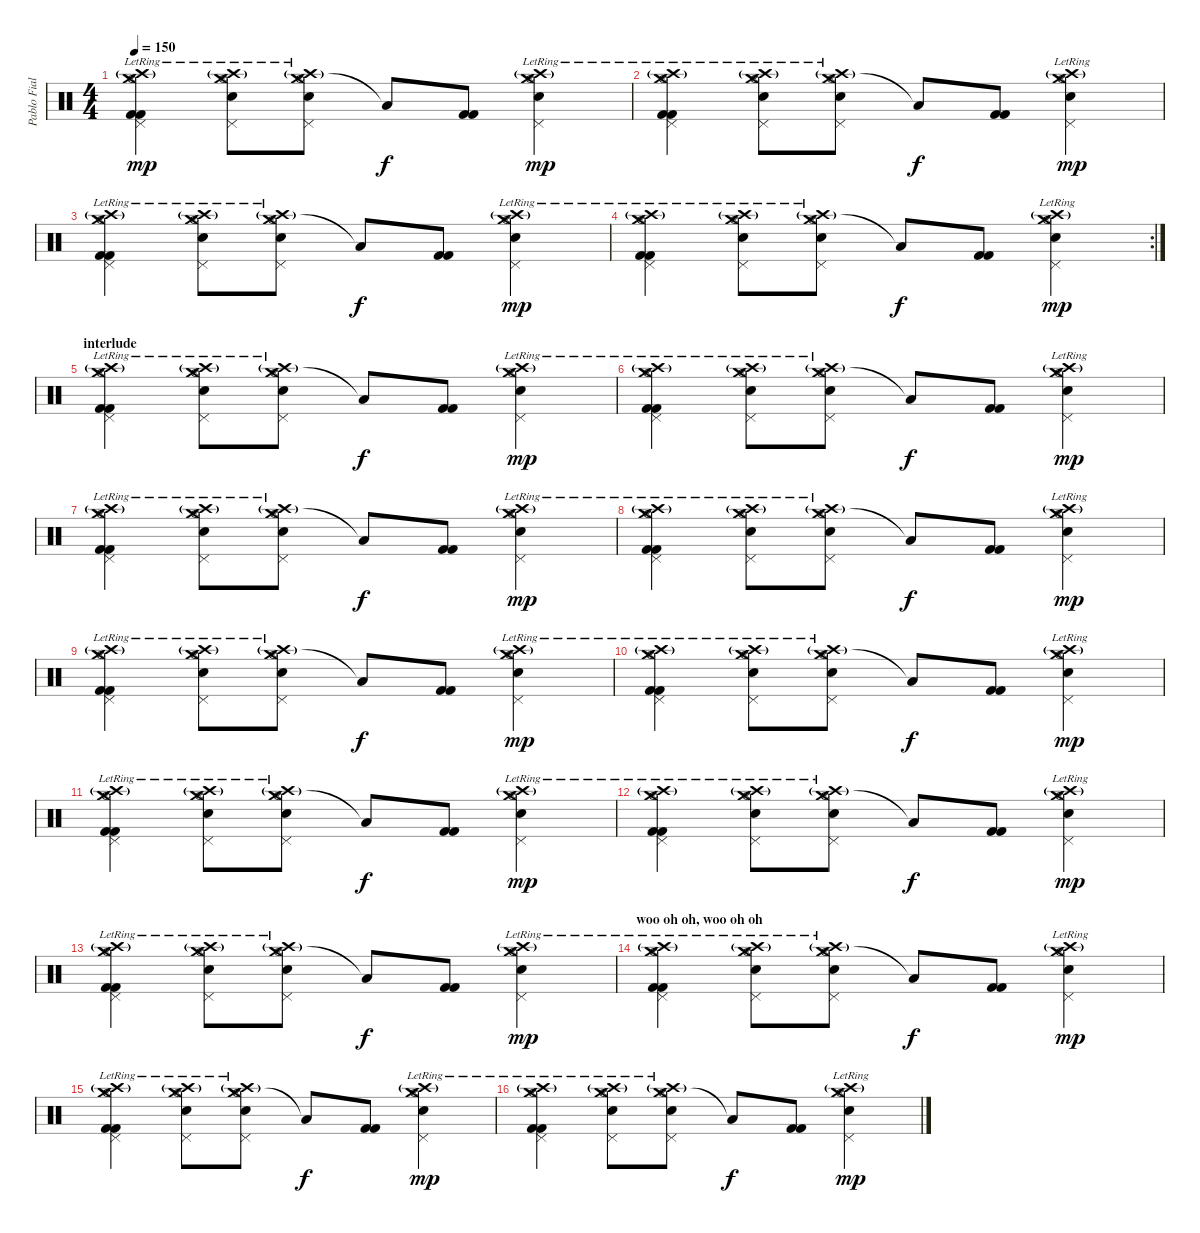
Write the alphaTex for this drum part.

\track ("Pablo Fiallo" "Pablo Fial") {instrument percussion}
\staff {score}
\articulation defaults
\ts (4 4)
\tempo 150
\clef neutral
\ks c
("Crash medium (hit)" "Crash high (hit)"{g} "Pedal Hi-Hat (hit)" "Hi-Hat (open)"{lr} "Kick (hit) 2" "Kick (hit) 2").4{dy mp} ("Crash medium (hit)" "Crash high (hit)"{g} "Pedal Hi-Hat (hit)" "Hi-Hat (open)"{lr} "Snare (hit) 2").8 ("Crash medium (hit)" "Crash high (hit)"{g} "Pedal Hi-Hat (hit)" "Hi-Hat (open)"{lr} "Snare (hit) 2").8 "Low Floor Tom (hit)"{t}.8{dy f} ("Kick (hit) 2" "Kick (hit) 2").8 ("Crash medium (hit)" "Crash high (hit)"{g} "Pedal Hi-Hat (hit)" "Hi-Hat (open)"{lr} "Snare (hit) 2").4{dy mp} |
("Crash medium (hit)" "Crash high (hit)"{g} "Pedal Hi-Hat (hit)" "Hi-Hat (open)"{lr} "Kick (hit) 2" "Kick (hit) 2").4 ("Crash medium (hit)" "Crash high (hit)"{g} "Pedal Hi-Hat (hit)" "Hi-Hat (open)"{lr} "Snare (hit) 2").8 ("Crash medium (hit)" "Crash high (hit)"{g} "Pedal Hi-Hat (hit)" "Hi-Hat (open)"{lr} "Snare (hit) 2").8 "Low Floor Tom (hit)"{t}.8{dy f} ("Kick (hit) 2" "Kick (hit) 2").8 ("Crash medium (hit)" "Crash high (hit)"{g} "Pedal Hi-Hat (hit)" "Hi-Hat (open)"{lr} "Snare (hit) 2").4{dy mp} |
("Crash medium (hit)" "Crash high (hit)"{g} "Pedal Hi-Hat (hit)" "Hi-Hat (open)"{lr} "Kick (hit) 2" "Kick (hit) 2").4 ("Crash medium (hit)" "Crash high (hit)"{g} "Pedal Hi-Hat (hit)" "Hi-Hat (open)"{lr} "Snare (hit) 2").8 ("Crash medium (hit)" "Crash high (hit)"{g} "Pedal Hi-Hat (hit)" "Hi-Hat (open)"{lr} "Snare (hit) 2").8 "Low Floor Tom (hit)"{t}.8{dy f} ("Kick (hit) 2" "Kick (hit) 2").8 ("Crash medium (hit)" "Crash high (hit)"{g} "Pedal Hi-Hat (hit)" "Hi-Hat (open)"{lr} "Snare (hit) 2").4{dy mp} |
\rc 2
("Crash medium (hit)" "Crash high (hit)"{g} "Pedal Hi-Hat (hit)" "Hi-Hat (open)"{lr} "Kick (hit) 2" "Kick (hit) 2").4 ("Crash medium (hit)" "Crash high (hit)"{g} "Pedal Hi-Hat (hit)" "Hi-Hat (open)"{lr} "Snare (hit) 2").8 ("Crash medium (hit)" "Crash high (hit)"{g} "Pedal Hi-Hat (hit)" "Hi-Hat (open)"{lr} "Snare (hit) 2").8 "Low Floor Tom (hit)"{t}.8{dy f} ("Kick (hit) 2" "Kick (hit) 2").8 ("Crash medium (hit)" "Crash high (hit)"{g} "Pedal Hi-Hat (hit)" "Hi-Hat (open)"{lr} "Snare (hit) 2").4{dy mp} |
\section ("" "interlude")
("Crash medium (hit)" "Crash high (hit)"{g} "Pedal Hi-Hat (hit)" "Hi-Hat (open)"{lr} "Kick (hit) 2" "Kick (hit) 2").4 ("Crash medium (hit)" "Crash high (hit)"{g} "Pedal Hi-Hat (hit)" "Hi-Hat (open)"{lr} "Snare (hit) 2").8 ("Crash medium (hit)" "Crash high (hit)"{g} "Pedal Hi-Hat (hit)" "Hi-Hat (open)"{lr} "Snare (hit) 2").8 "Low Floor Tom (hit)"{t}.8{dy f} ("Kick (hit) 2" "Kick (hit) 2").8 ("Crash medium (hit)" "Crash high (hit)"{g} "Pedal Hi-Hat (hit)" "Hi-Hat (open)"{lr} "Snare (hit) 2").4{dy mp} |
("Crash medium (hit)" "Crash high (hit)"{g} "Pedal Hi-Hat (hit)" "Hi-Hat (open)"{lr} "Kick (hit) 2" "Kick (hit) 2").4 ("Crash medium (hit)" "Crash high (hit)"{g} "Pedal Hi-Hat (hit)" "Hi-Hat (open)"{lr} "Snare (hit) 2").8 ("Crash medium (hit)" "Crash high (hit)"{g} "Pedal Hi-Hat (hit)" "Hi-Hat (open)"{lr} "Snare (hit) 2").8 "Low Floor Tom (hit)"{t}.8{dy f} ("Kick (hit) 2" "Kick (hit) 2").8 ("Crash medium (hit)" "Crash high (hit)"{g} "Pedal Hi-Hat (hit)" "Hi-Hat (open)"{lr} "Snare (hit) 2").4{dy mp} |
("Crash medium (hit)" "Crash high (hit)"{g} "Pedal Hi-Hat (hit)" "Hi-Hat (open)"{lr} "Kick (hit) 2" "Kick (hit) 2").4 ("Crash medium (hit)" "Crash high (hit)"{g} "Pedal Hi-Hat (hit)" "Hi-Hat (open)"{lr} "Snare (hit) 2").8 ("Crash medium (hit)" "Crash high (hit)"{g} "Pedal Hi-Hat (hit)" "Hi-Hat (open)"{lr} "Snare (hit) 2").8 "Low Floor Tom (hit)"{t}.8{dy f} ("Kick (hit) 2" "Kick (hit) 2").8 ("Crash medium (hit)" "Crash high (hit)"{g} "Pedal Hi-Hat (hit)" "Hi-Hat (open)"{lr} "Snare (hit) 2").4{dy mp} |
("Crash medium (hit)" "Crash high (hit)"{g} "Pedal Hi-Hat (hit)" "Hi-Hat (open)"{lr} "Kick (hit) 2" "Kick (hit) 2").4 ("Crash medium (hit)" "Crash high (hit)"{g} "Pedal Hi-Hat (hit)" "Hi-Hat (open)"{lr} "Snare (hit) 2").8 ("Crash medium (hit)" "Crash high (hit)"{g} "Pedal Hi-Hat (hit)" "Hi-Hat (open)"{lr} "Snare (hit) 2").8 "Low Floor Tom (hit)"{t}.8{dy f} ("Kick (hit) 2" "Kick (hit) 2").8 ("Crash medium (hit)" "Crash high (hit)"{g} "Pedal Hi-Hat (hit)" "Hi-Hat (open)"{lr} "Snare (hit) 2").4{dy mp} |
("Crash medium (hit)" "Crash high (hit)"{g} "Pedal Hi-Hat (hit)" "Hi-Hat (open)"{lr} "Kick (hit) 2" "Kick (hit) 2").4 ("Crash medium (hit)" "Crash high (hit)"{g} "Pedal Hi-Hat (hit)" "Hi-Hat (open)"{lr} "Snare (hit) 2").8 ("Crash medium (hit)" "Crash high (hit)"{g} "Pedal Hi-Hat (hit)" "Hi-Hat (open)"{lr} "Snare (hit) 2").8 "Low Floor Tom (hit)"{t}.8{dy f} ("Kick (hit) 2" "Kick (hit) 2").8 ("Crash medium (hit)" "Crash high (hit)"{g} "Pedal Hi-Hat (hit)" "Hi-Hat (open)"{lr} "Snare (hit) 2").4{dy mp} |
("Crash medium (hit)" "Crash high (hit)"{g} "Pedal Hi-Hat (hit)" "Hi-Hat (open)"{lr} "Kick (hit) 2" "Kick (hit) 2").4 ("Crash medium (hit)" "Crash high (hit)"{g} "Pedal Hi-Hat (hit)" "Hi-Hat (open)"{lr} "Snare (hit) 2").8 ("Crash medium (hit)" "Crash high (hit)"{g} "Pedal Hi-Hat (hit)" "Hi-Hat (open)"{lr} "Snare (hit) 2").8 "Low Floor Tom (hit)"{t}.8{dy f} ("Kick (hit) 2" "Kick (hit) 2").8 ("Crash medium (hit)" "Crash high (hit)"{g} "Pedal Hi-Hat (hit)" "Hi-Hat (open)"{lr} "Snare (hit) 2").4{dy mp} |
("Crash medium (hit)" "Crash high (hit)"{g} "Pedal Hi-Hat (hit)" "Hi-Hat (open)"{lr} "Kick (hit) 2" "Kick (hit) 2").4 ("Crash medium (hit)" "Crash high (hit)"{g} "Pedal Hi-Hat (hit)" "Hi-Hat (open)"{lr} "Snare (hit) 2").8 ("Crash medium (hit)" "Crash high (hit)"{g} "Pedal Hi-Hat (hit)" "Hi-Hat (open)"{lr} "Snare (hit) 2").8 "Low Floor Tom (hit)"{t}.8{dy f} ("Kick (hit) 2" "Kick (hit) 2").8 ("Crash medium (hit)" "Crash high (hit)"{g} "Pedal Hi-Hat (hit)" "Hi-Hat (open)"{lr} "Snare (hit) 2").4{dy mp} |
("Crash medium (hit)" "Crash high (hit)"{g} "Pedal Hi-Hat (hit)" "Hi-Hat (open)"{lr} "Kick (hit) 2" "Kick (hit) 2").4 ("Crash medium (hit)" "Crash high (hit)"{g} "Pedal Hi-Hat (hit)" "Hi-Hat (open)"{lr} "Snare (hit) 2").8 ("Crash medium (hit)" "Crash high (hit)"{g} "Pedal Hi-Hat (hit)" "Hi-Hat (open)"{lr} "Snare (hit) 2").8 "Low Floor Tom (hit)"{t}.8{dy f} ("Kick (hit) 2" "Kick (hit) 2").8 ("Crash medium (hit)" "Crash high (hit)"{g} "Pedal Hi-Hat (hit)" "Hi-Hat (open)"{lr} "Snare (hit) 2").4{dy mp} |
("Crash medium (hit)" "Crash high (hit)"{g} "Pedal Hi-Hat (hit)" "Hi-Hat (open)"{lr} "Kick (hit) 2" "Kick (hit) 2").4 ("Crash medium (hit)" "Crash high (hit)"{g} "Pedal Hi-Hat (hit)" "Hi-Hat (open)"{lr} "Snare (hit) 2").8 ("Crash medium (hit)" "Crash high (hit)"{g} "Pedal Hi-Hat (hit)" "Hi-Hat (open)"{lr} "Snare (hit) 2").8 "Low Floor Tom (hit)"{t}.8{dy f} ("Kick (hit) 2" "Kick (hit) 2").8 ("Crash medium (hit)" "Crash high (hit)"{g} "Pedal Hi-Hat (hit)" "Hi-Hat (open)"{lr} "Snare (hit) 2").4{dy mp} |
\section ("" "woo oh oh, woo oh oh ")
("Crash medium (hit)" "Crash high (hit)"{g} "Pedal Hi-Hat (hit)" "Hi-Hat (open)"{lr} "Kick (hit) 2" "Kick (hit) 2").4 ("Crash medium (hit)" "Crash high (hit)"{g} "Pedal Hi-Hat (hit)" "Hi-Hat (open)"{lr} "Snare (hit) 2").8 ("Crash medium (hit)" "Crash high (hit)"{g} "Pedal Hi-Hat (hit)" "Hi-Hat (open)"{lr} "Snare (hit) 2").8 "Low Floor Tom (hit)"{t}.8{dy f} ("Kick (hit) 2" "Kick (hit) 2").8 ("Crash medium (hit)" "Crash high (hit)"{g} "Pedal Hi-Hat (hit)" "Hi-Hat (open)"{lr} "Snare (hit) 2").4{dy mp} |
("Crash medium (hit)" "Crash high (hit)"{g} "Pedal Hi-Hat (hit)" "Hi-Hat (open)"{lr} "Kick (hit) 2" "Kick (hit) 2").4 ("Crash medium (hit)" "Crash high (hit)"{g} "Pedal Hi-Hat (hit)" "Hi-Hat (open)"{lr} "Snare (hit) 2").8 ("Crash medium (hit)" "Crash high (hit)"{g} "Pedal Hi-Hat (hit)" "Hi-Hat (open)"{lr} "Snare (hit) 2").8 "Low Floor Tom (hit)"{t}.8{dy f} ("Kick (hit) 2" "Kick (hit) 2").8 ("Crash medium (hit)" "Crash high (hit)"{g} "Pedal Hi-Hat (hit)" "Hi-Hat (open)"{lr} "Snare (hit) 2").4{dy mp} |
("Crash medium (hit)" "Crash high (hit)"{g} "Pedal Hi-Hat (hit)" "Hi-Hat (open)"{lr} "Kick (hit) 2" "Kick (hit) 2").4 ("Crash medium (hit)" "Crash high (hit)"{g} "Pedal Hi-Hat (hit)" "Hi-Hat (open)"{lr} "Snare (hit) 2").8 ("Crash medium (hit)" "Crash high (hit)"{g} "Pedal Hi-Hat (hit)" "Hi-Hat (open)"{lr} "Snare (hit) 2").8 "Low Floor Tom (hit)"{t}.8{dy f} ("Kick (hit) 2" "Kick (hit) 2").8 ("Crash medium (hit)" "Crash high (hit)"{g} "Pedal Hi-Hat (hit)" "Hi-Hat (open)"{lr} "Snare (hit) 2").4{dy mp}
